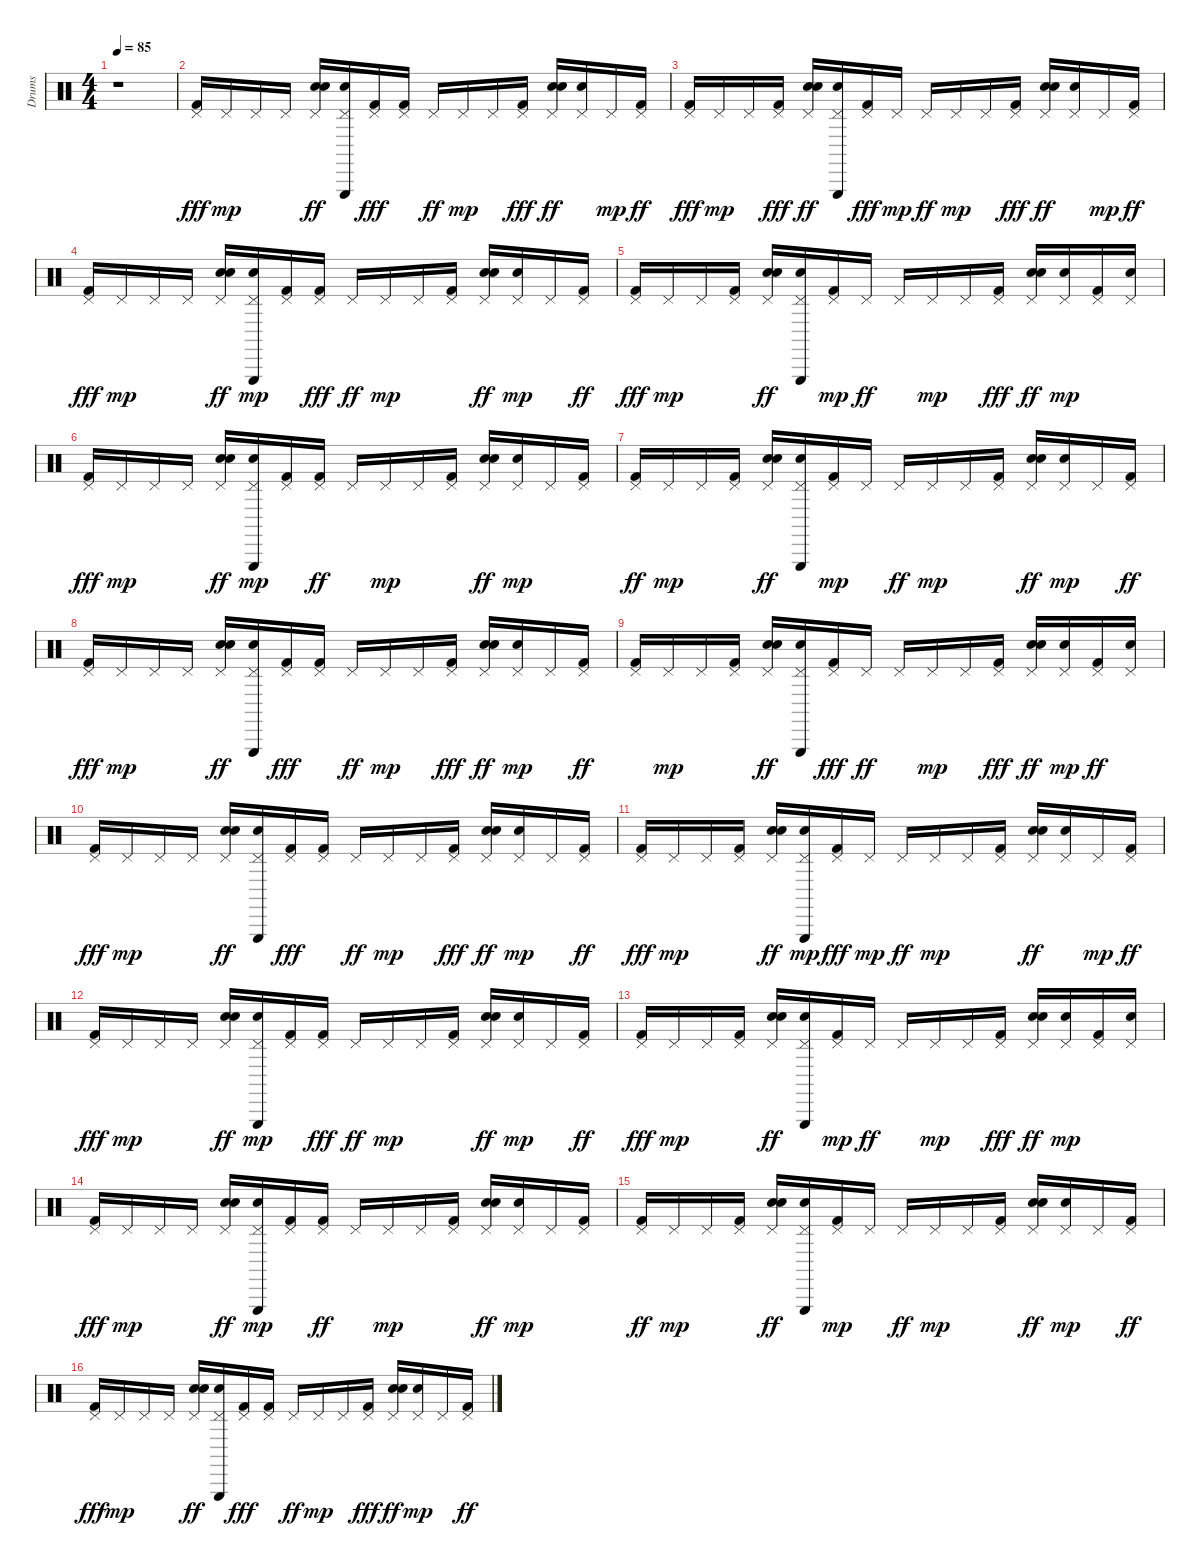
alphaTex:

\track ("Drums" "Drums") {instrument percussion}
\staff {score}
\articulation defaults
\ts (4 4)
\tempo 85
\clef neutral
\ks c
r.1{dy fff} |
("Pedal Hi-Hat (hit)" "Kick (hit) 2").16 "Pedal Hi-Hat (hit)".16{dy mp} "Pedal Hi-Hat (hit)".16 "Pedal Hi-Hat (hit)".16 ("Pedal Hi-Hat (hit)" "Hand Clap (hit)" "Snare (hit) 2").16{dy ff} ("Pedal Hi-Hat (hit)" "Triangle (hit)" "Snare (hit) 2").16 ("Pedal Hi-Hat (hit)" "Kick (hit) 2").16{dy fff} ("Pedal Hi-Hat (hit)" "Kick (hit) 2").16 "Pedal Hi-Hat (hit)".16{dy ff} "Pedal Hi-Hat (hit)".16{dy mp} "Pedal Hi-Hat (hit)".16 ("Pedal Hi-Hat (hit)" "Kick (hit) 2").16{dy fff} ("Pedal Hi-Hat (hit)" "Hand Clap (hit)" "Snare (hit) 2").16{dy ff} ("Pedal Hi-Hat (hit)" "Snare (hit) 2").16 "Pedal Hi-Hat (hit)".16{dy mp} ("Pedal Hi-Hat (hit)" "Kick (hit) 2").16{dy ff} |
("Pedal Hi-Hat (hit)" "Kick (hit) 2").16{dy fff} "Pedal Hi-Hat (hit)".16{dy mp} "Pedal Hi-Hat (hit)".16 ("Pedal Hi-Hat (hit)" "Kick (hit) 2").16{dy fff} ("Pedal Hi-Hat (hit)" "Hand Clap (hit)" "Snare (hit) 2").16{dy ff} ("Pedal Hi-Hat (hit)" "Triangle (hit)" "Snare (hit) 2").16 ("Pedal Hi-Hat (hit)" "Kick (hit) 2").16{dy fff} "Pedal Hi-Hat (hit)".16{dy mp} "Pedal Hi-Hat (hit)".16{dy ff} "Pedal Hi-Hat (hit)".16{dy mp} "Pedal Hi-Hat (hit)".16 ("Pedal Hi-Hat (hit)" "Kick (hit) 2").16{dy fff} ("Pedal Hi-Hat (hit)" "Hand Clap (hit)" "Snare (hit) 2").16{dy ff} ("Pedal Hi-Hat (hit)" "Snare (hit) 2").16 "Pedal Hi-Hat (hit)".16{dy mp} ("Pedal Hi-Hat (hit)" "Kick (hit) 2").16{dy ff} |
("Pedal Hi-Hat (hit)" "Kick (hit) 2").16{dy fff} "Pedal Hi-Hat (hit)".16{dy mp} "Pedal Hi-Hat (hit)".16 "Pedal Hi-Hat (hit)".16 ("Snare (hit) 2" "Pedal Hi-Hat (hit)" "Hand Clap (hit)").16{dy ff} ("Snare (hit) 2" "Pedal Hi-Hat (hit)" "Triangle (hit)").16{dy mp} ("Kick (hit) 2" "Pedal Hi-Hat (hit)").16 ("Pedal Hi-Hat (hit)" "Kick (hit) 2").16{dy fff} "Pedal Hi-Hat (hit)".16{dy ff} "Pedal Hi-Hat (hit)".16{dy mp} "Pedal Hi-Hat (hit)".16 ("Kick (hit) 2" "Pedal Hi-Hat (hit)").16 ("Pedal Hi-Hat (hit)" "Snare (hit) 2" "Hand Clap (hit)").16{dy ff} ("Snare (hit) 2" "Pedal Hi-Hat (hit)").16{dy mp} "Pedal Hi-Hat (hit)".16 ("Pedal Hi-Hat (hit)" "Kick (hit) 2").16{dy ff} |
("Pedal Hi-Hat (hit)" "Kick (hit) 2").16{dy fff} "Pedal Hi-Hat (hit)".16{dy mp} "Pedal Hi-Hat (hit)".16 ("Kick (hit) 2" "Pedal Hi-Hat (hit)").16 ("Snare (hit) 2" "Pedal Hi-Hat (hit)" "Hand Clap (hit)").16{dy ff} ("Triangle (hit)" "Pedal Hi-Hat (hit)" "Snare (hit) 2").16 ("Kick (hit) 2" "Pedal Hi-Hat (hit)").16{dy mp} "Pedal Hi-Hat (hit)".16{dy ff} "Pedal Hi-Hat (hit)".16 "Pedal Hi-Hat (hit)".16{dy mp} "Pedal Hi-Hat (hit)".16 ("Pedal Hi-Hat (hit)" "Kick (hit) 2").16{dy fff} ("Hand Clap (hit)" "Snare (hit) 2" "Pedal Hi-Hat (hit)").16{dy ff} ("Snare (hit) 2" "Pedal Hi-Hat (hit)").16{dy mp} ("Kick (hit) 2" "Pedal Hi-Hat (hit)").16 ("Snare (hit) 2" "Pedal Hi-Hat (hit)").16 |
("Pedal Hi-Hat (hit)" "Kick (hit) 2").16{dy fff} "Pedal Hi-Hat (hit)".16{dy mp} "Pedal Hi-Hat (hit)".16 "Pedal Hi-Hat (hit)".16 ("Snare (hit) 2" "Hand Clap (hit)" "Pedal Hi-Hat (hit)").16{dy ff} ("Snare (hit) 2" "Triangle (hit)" "Pedal Hi-Hat (hit)").16{dy mp} ("Kick (hit) 2" "Pedal Hi-Hat (hit)").16 ("Kick (hit) 2" "Pedal Hi-Hat (hit)").16{dy ff} "Pedal Hi-Hat (hit)".16 "Pedal Hi-Hat (hit)".16{dy mp} "Pedal Hi-Hat (hit)".16 ("Kick (hit) 2" "Pedal Hi-Hat (hit)").16 ("Hand Clap (hit)" "Snare (hit) 2" "Pedal Hi-Hat (hit)").16{dy ff} ("Snare (hit) 2" "Pedal Hi-Hat (hit)").16{dy mp} "Pedal Hi-Hat (hit)".16 ("Kick (hit) 2" "Pedal Hi-Hat (hit)").16 |
("Kick (hit) 2" "Pedal Hi-Hat (hit)").16{dy ff} "Pedal Hi-Hat (hit)".16{dy mp} "Pedal Hi-Hat (hit)".16 ("Kick (hit) 2" "Pedal Hi-Hat (hit)").16 ("Pedal Hi-Hat (hit)" "Hand Clap (hit)" "Snare (hit) 2").16{dy ff} ("Pedal Hi-Hat (hit)" "Triangle (hit)" "Snare (hit) 2").16 ("Kick (hit) 2" "Pedal Hi-Hat (hit)").16{dy mp} "Pedal Hi-Hat (hit)".16 "Pedal Hi-Hat (hit)".16{dy ff} "Pedal Hi-Hat (hit)".16{dy mp} "Pedal Hi-Hat (hit)".16 ("Kick (hit) 2" "Pedal Hi-Hat (hit)").16 ("Hand Clap (hit)" "Snare (hit) 2" "Pedal Hi-Hat (hit)").16{dy ff} ("Snare (hit) 2" "Pedal Hi-Hat (hit)").16{dy mp} "Pedal Hi-Hat (hit)".16 ("Pedal Hi-Hat (hit)" "Kick (hit) 2").16{dy ff} |
("Pedal Hi-Hat (hit)" "Kick (hit) 2").16{dy fff} "Pedal Hi-Hat (hit)".16{dy mp} "Pedal Hi-Hat (hit)".16 "Pedal Hi-Hat (hit)".16 ("Pedal Hi-Hat (hit)" "Hand Clap (hit)" "Snare (hit) 2").16{dy ff} ("Triangle (hit)" "Pedal Hi-Hat (hit)" "Snare (hit) 2").16 ("Pedal Hi-Hat (hit)" "Kick (hit) 2").16{dy fff} ("Pedal Hi-Hat (hit)" "Kick (hit) 2").16 "Pedal Hi-Hat (hit)".16{dy ff} "Pedal Hi-Hat (hit)".16{dy mp} "Pedal Hi-Hat (hit)".16 ("Pedal Hi-Hat (hit)" "Kick (hit) 2").16{dy fff} ("Snare (hit) 2" "Pedal Hi-Hat (hit)" "Hand Clap (hit)").16{dy ff} ("Snare (hit) 2" "Pedal Hi-Hat (hit)").16{dy mp} "Pedal Hi-Hat (hit)".16 ("Pedal Hi-Hat (hit)" "Kick (hit) 2").16{dy ff} |
("Kick (hit) 2" "Pedal Hi-Hat (hit)").16 "Pedal Hi-Hat (hit)".16{dy mp} "Pedal Hi-Hat (hit)".16 ("Kick (hit) 2" "Pedal Hi-Hat (hit)").16 ("Pedal Hi-Hat (hit)" "Snare (hit) 2" "Hand Clap (hit)").16{dy ff} ("Triangle (hit)" "Pedal Hi-Hat (hit)" "Snare (hit) 2").16 ("Pedal Hi-Hat (hit)" "Kick (hit) 2").16{dy fff} "Pedal Hi-Hat (hit)".16{dy ff} "Pedal Hi-Hat (hit)".16 "Pedal Hi-Hat (hit)".16{dy mp} "Pedal Hi-Hat (hit)".16 ("Pedal Hi-Hat (hit)" "Kick (hit) 2").16{dy fff} ("Hand Clap (hit)" "Snare (hit) 2" "Pedal Hi-Hat (hit)").16{dy ff} ("Snare (hit) 2" "Pedal Hi-Hat (hit)").16{dy mp} ("Pedal Hi-Hat (hit)" "Kick (hit) 2").16{dy ff} ("Pedal Hi-Hat (hit)" "Snare (hit) 2").16 |
("Pedal Hi-Hat (hit)" "Kick (hit) 2").16{dy fff} "Pedal Hi-Hat (hit)".16{dy mp} "Pedal Hi-Hat (hit)".16 "Pedal Hi-Hat (hit)".16 ("Pedal Hi-Hat (hit)" "Hand Clap (hit)" "Snare (hit) 2").16{dy ff} ("Pedal Hi-Hat (hit)" "Triangle (hit)" "Snare (hit) 2").16 ("Pedal Hi-Hat (hit)" "Kick (hit) 2").16{dy fff} ("Pedal Hi-Hat (hit)" "Kick (hit) 2").16 "Pedal Hi-Hat (hit)".16{dy ff} "Pedal Hi-Hat (hit)".16{dy mp} "Pedal Hi-Hat (hit)".16 ("Pedal Hi-Hat (hit)" "Kick (hit) 2").16{dy fff} ("Snare (hit) 2" "Pedal Hi-Hat (hit)" "Hand Clap (hit)").16{dy ff} ("Snare (hit) 2" "Pedal Hi-Hat (hit)").16{dy mp} "Pedal Hi-Hat (hit)".16 ("Pedal Hi-Hat (hit)" "Kick (hit) 2").16{dy ff} |
("Pedal Hi-Hat (hit)" "Kick (hit) 2").16{dy fff} "Pedal Hi-Hat (hit)".16{dy mp} "Pedal Hi-Hat (hit)".16 ("Kick (hit) 2" "Pedal Hi-Hat (hit)").16 ("Hand Clap (hit)" "Pedal Hi-Hat (hit)" "Snare (hit) 2").16{dy ff} ("Triangle (hit)" "Snare (hit) 2" "Pedal Hi-Hat (hit)").16{dy mp} ("Pedal Hi-Hat (hit)" "Kick (hit) 2").16{dy fff} "Pedal Hi-Hat (hit)".16{dy mp} "Pedal Hi-Hat (hit)".16{dy ff} "Pedal Hi-Hat (hit)".16{dy mp} "Pedal Hi-Hat (hit)".16 ("Kick (hit) 2" "Pedal Hi-Hat (hit)").16 ("Hand Clap (hit)" "Pedal Hi-Hat (hit)" "Snare (hit) 2").16{dy ff} ("Pedal Hi-Hat (hit)" "Snare (hit) 2").16 "Pedal Hi-Hat (hit)".16{dy mp} ("Pedal Hi-Hat (hit)" "Kick (hit) 2").16{dy ff} |
("Pedal Hi-Hat (hit)" "Kick (hit) 2").16{dy fff} "Pedal Hi-Hat (hit)".16{dy mp} "Pedal Hi-Hat (hit)".16 "Pedal Hi-Hat (hit)".16 ("Snare (hit) 2" "Pedal Hi-Hat (hit)" "Hand Clap (hit)").16{dy ff} ("Snare (hit) 2" "Pedal Hi-Hat (hit)" "Triangle (hit)").16{dy mp} ("Kick (hit) 2" "Pedal Hi-Hat (hit)").16 ("Pedal Hi-Hat (hit)" "Kick (hit) 2").16{dy fff} "Pedal Hi-Hat (hit)".16{dy ff} "Pedal Hi-Hat (hit)".16{dy mp} "Pedal Hi-Hat (hit)".16 ("Kick (hit) 2" "Pedal Hi-Hat (hit)").16 ("Pedal Hi-Hat (hit)" "Snare (hit) 2" "Hand Clap (hit)").16{dy ff} ("Snare (hit) 2" "Pedal Hi-Hat (hit)").16{dy mp} "Pedal Hi-Hat (hit)".16 ("Pedal Hi-Hat (hit)" "Kick (hit) 2").16{dy ff} |
("Pedal Hi-Hat (hit)" "Kick (hit) 2").16{dy fff} "Pedal Hi-Hat (hit)".16{dy mp} "Pedal Hi-Hat (hit)".16 ("Kick (hit) 2" "Pedal Hi-Hat (hit)").16 ("Snare (hit) 2" "Pedal Hi-Hat (hit)" "Hand Clap (hit)").16{dy ff} ("Triangle (hit)" "Pedal Hi-Hat (hit)" "Snare (hit) 2").16 ("Kick (hit) 2" "Pedal Hi-Hat (hit)").16{dy mp} "Pedal Hi-Hat (hit)".16{dy ff} "Pedal Hi-Hat (hit)".16 "Pedal Hi-Hat (hit)".16{dy mp} "Pedal Hi-Hat (hit)".16 ("Pedal Hi-Hat (hit)" "Kick (hit) 2").16{dy fff} ("Hand Clap (hit)" "Snare (hit) 2" "Pedal Hi-Hat (hit)").16{dy ff} ("Snare (hit) 2" "Pedal Hi-Hat (hit)").16{dy mp} ("Kick (hit) 2" "Pedal Hi-Hat (hit)").16 ("Snare (hit) 2" "Pedal Hi-Hat (hit)").16 |
("Pedal Hi-Hat (hit)" "Kick (hit) 2").16{dy fff} "Pedal Hi-Hat (hit)".16{dy mp} "Pedal Hi-Hat (hit)".16 "Pedal Hi-Hat (hit)".16 ("Snare (hit) 2" "Hand Clap (hit)" "Pedal Hi-Hat (hit)").16{dy ff} ("Snare (hit) 2" "Triangle (hit)" "Pedal Hi-Hat (hit)").16{dy mp} ("Kick (hit) 2" "Pedal Hi-Hat (hit)").16 ("Kick (hit) 2" "Pedal Hi-Hat (hit)").16{dy ff} "Pedal Hi-Hat (hit)".16 "Pedal Hi-Hat (hit)".16{dy mp} "Pedal Hi-Hat (hit)".16 ("Kick (hit) 2" "Pedal Hi-Hat (hit)").16 ("Hand Clap (hit)" "Snare (hit) 2" "Pedal Hi-Hat (hit)").16{dy ff} ("Snare (hit) 2" "Pedal Hi-Hat (hit)").16{dy mp} "Pedal Hi-Hat (hit)".16 ("Kick (hit) 2" "Pedal Hi-Hat (hit)").16 |
("Kick (hit) 2" "Pedal Hi-Hat (hit)").16{dy ff} "Pedal Hi-Hat (hit)".16{dy mp} "Pedal Hi-Hat (hit)".16 ("Kick (hit) 2" "Pedal Hi-Hat (hit)").16 ("Pedal Hi-Hat (hit)" "Hand Clap (hit)" "Snare (hit) 2").16{dy ff} ("Pedal Hi-Hat (hit)" "Triangle (hit)" "Snare (hit) 2").16 ("Kick (hit) 2" "Pedal Hi-Hat (hit)").16{dy mp} "Pedal Hi-Hat (hit)".16 "Pedal Hi-Hat (hit)".16{dy ff} "Pedal Hi-Hat (hit)".16{dy mp} "Pedal Hi-Hat (hit)".16 ("Kick (hit) 2" "Pedal Hi-Hat (hit)").16 ("Hand Clap (hit)" "Snare (hit) 2" "Pedal Hi-Hat (hit)").16{dy ff} ("Snare (hit) 2" "Pedal Hi-Hat (hit)").16{dy mp} "Pedal Hi-Hat (hit)".16 ("Pedal Hi-Hat (hit)" "Kick (hit) 2").16{dy ff} |
("Pedal Hi-Hat (hit)" "Kick (hit) 2").16{dy fff} "Pedal Hi-Hat (hit)".16{dy mp} "Pedal Hi-Hat (hit)".16 "Pedal Hi-Hat (hit)".16 ("Pedal Hi-Hat (hit)" "Hand Clap (hit)" "Snare (hit) 2").16{dy ff} ("Triangle (hit)" "Pedal Hi-Hat (hit)" "Snare (hit) 2").16 ("Pedal Hi-Hat (hit)" "Kick (hit) 2").16{dy fff} ("Pedal Hi-Hat (hit)" "Kick (hit) 2").16 "Pedal Hi-Hat (hit)".16{dy ff} "Pedal Hi-Hat (hit)".16{dy mp} "Pedal Hi-Hat (hit)".16 ("Pedal Hi-Hat (hit)" "Kick (hit) 2").16{dy fff} ("Snare (hit) 2" "Pedal Hi-Hat (hit)" "Hand Clap (hit)").16{dy ff} ("Snare (hit) 2" "Pedal Hi-Hat (hit)").16{dy mp} "Pedal Hi-Hat (hit)".16 ("Pedal Hi-Hat (hit)" "Kick (hit) 2").16{dy ff}
